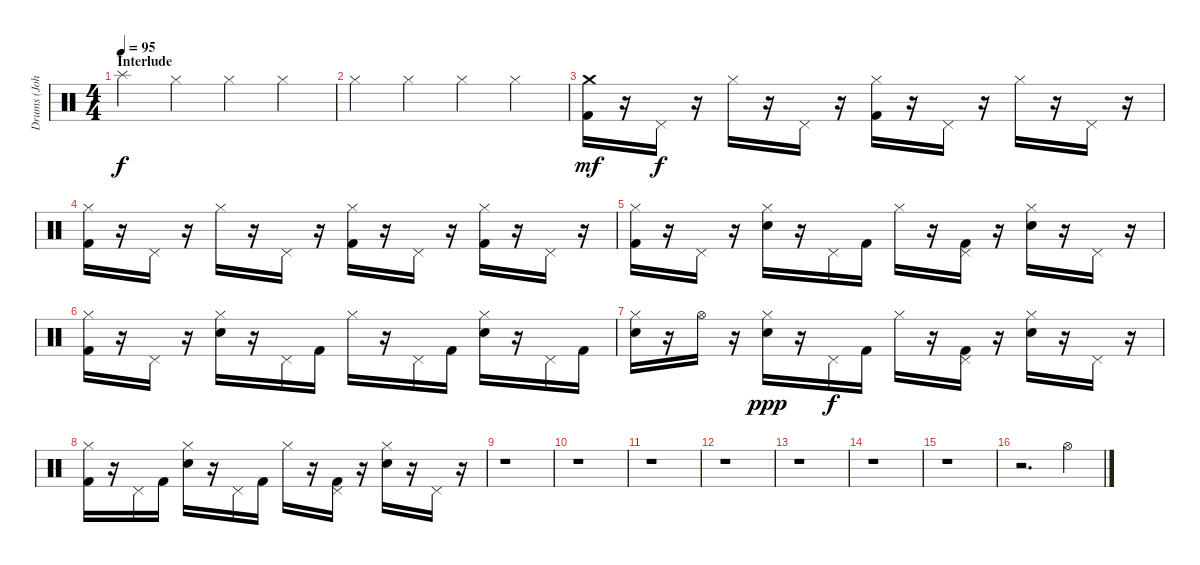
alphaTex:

\track ("Drums (John Otto)" "Drums (Joh") {instrument percussion}
\staff {score}
\articulation defaults
\ts (4 4)
\section ("" "Interlude")
\tempo 95
\clef neutral
\ks c "Splash (hit)".4{dy f} "Hi-Hat (closed)".4 "Hi-Hat (closed)".4 "Hi-Hat (closed)".4
|
"Hi-Hat (closed)".4 "Hi-Hat (closed)".4 "Hi-Hat (closed)".4 "Hi-Hat (closed)".4 |
("Crash medium (hit)" "Kick (hit) 2").16{dy mf} r.16 "Pedal Hi-Hat (hit)".16{dy f} r.16 "Hi-Hat (closed)".16 r.16 "Pedal Hi-Hat (hit)".16 r.16 ("Hi-Hat (closed)" "Kick (hit) 2").16 r.16 "Pedal Hi-Hat (hit)".16 r.16 "Hi-Hat (closed)".16 r.16 "Pedal Hi-Hat (hit)".16 r.16 |
("Hi-Hat (closed)" "Kick (hit) 2").16 r.16 "Pedal Hi-Hat (hit)".16 r.16 "Hi-Hat (closed)".16 r.16 "Pedal Hi-Hat (hit)".16 r.16 ("Hi-Hat (closed)" "Kick (hit) 2").16 r.16 "Pedal Hi-Hat (hit)".16 r.16 ("Hi-Hat (closed)" "Kick (hit) 2").16 r.16 "Pedal Hi-Hat (hit)".16 r.16 |
("Hi-Hat (closed)" "Kick (hit) 2").16 r.16 "Pedal Hi-Hat (hit)".16 r.16 ("Hi-Hat (closed)" "Electric Snare (hit)").16 r.16 "Pedal Hi-Hat (hit)".16 "Kick (hit) 2".16 "Hi-Hat (closed)".16 r.16 ("Pedal Hi-Hat (hit)" "Kick (hit) 2").16 r.16 ("Hi-Hat (closed)" "Electric Snare (hit)").16 r.16 "Pedal Hi-Hat (hit)".16 r.16 |
("Hi-Hat (closed)" "Kick (hit) 2").16 r.16 "Pedal Hi-Hat (hit)".16 r.16 ("Hi-Hat (closed)" "Electric Snare (hit)").16 r.16 "Pedal Hi-Hat (hit)".16 "Kick (hit) 2".16 "Hi-Hat (closed)".16 r.16 "Pedal Hi-Hat (hit)".16 "Kick (hit) 2".16 ("Hi-Hat (closed)" "Electric Snare (hit)").16 r.16 "Pedal Hi-Hat (hit)".16 "Kick (hit) 2".16 |
("Hi-Hat (closed)" "Electric Snare (hit)").16 r.16 "Hi-Hat (open)".16 r.16 ("Hi-Hat (closed)" "Electric Snare (hit)").16{dy ppp} r.16 "Pedal Hi-Hat (hit)".16{dy f} "Kick (hit) 2".16 "Hi-Hat (closed)".16 r.16 ("Pedal Hi-Hat (hit)" "Kick (hit) 2").16 r.16 ("Hi-Hat (closed)" "Electric Snare (hit)").16 r.16 "Pedal Hi-Hat (hit)".16 r.16 |
("Hi-Hat (closed)" "Kick (hit) 2").16 r.16 "Pedal Hi-Hat (hit)".16 "Kick (hit) 2".16 ("Hi-Hat (closed)" "Electric Snare (hit)").16 r.16 "Pedal Hi-Hat (hit)".16 "Kick (hit) 2".16 "Hi-Hat (closed)".16 r.16 ("Pedal Hi-Hat (hit)" "Kick (hit) 2").16 r.16 ("Hi-Hat (closed)" "Electric Snare (hit)").16 r.16 "Pedal Hi-Hat (hit)".16 r.16 |
r.1 |
r.1 |
r.1 |
r.1 |
r.1 |
r.1 |
r.1 |
r.2{d} "Hi-Hat (open)".4
